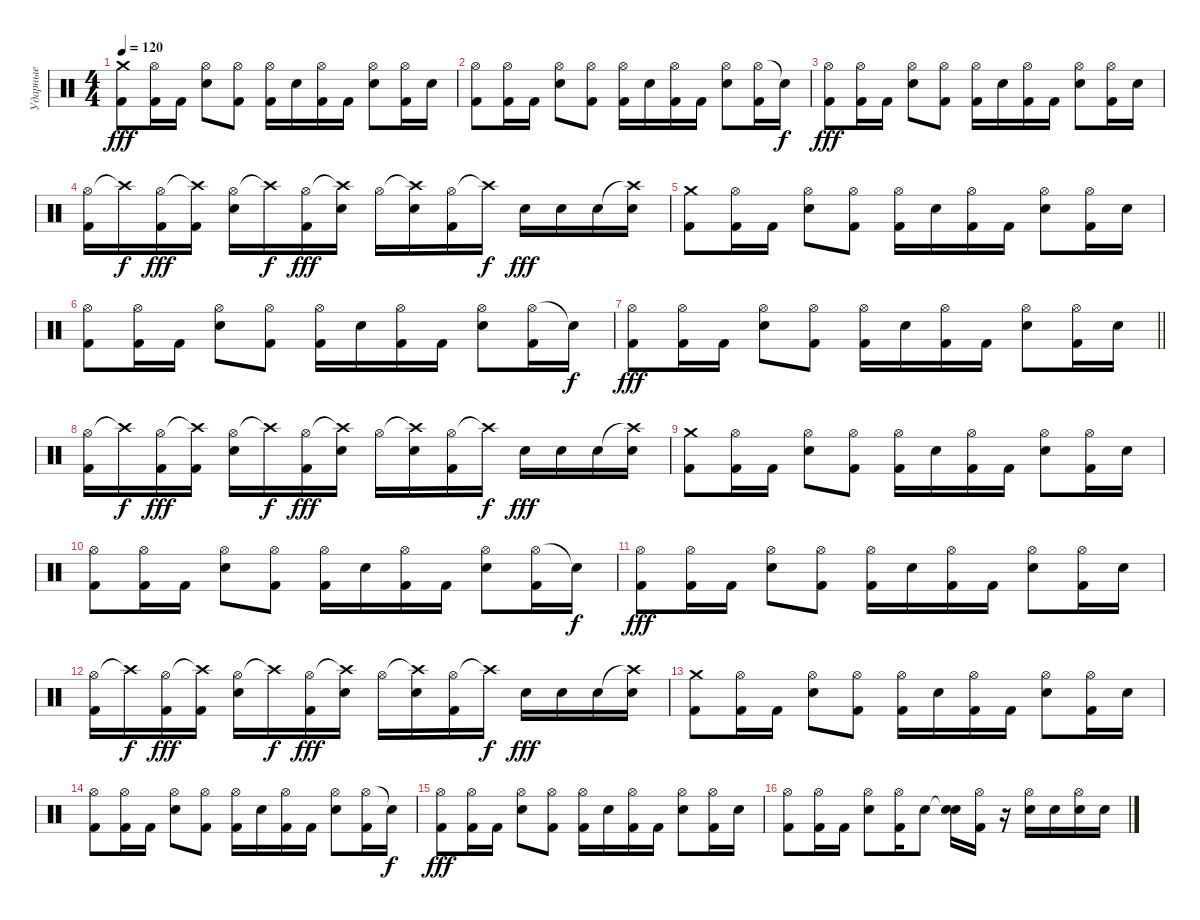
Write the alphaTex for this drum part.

\track ("Ударные" "Ударные") {instrument percussion}
\staff {score}
\articulation defaults
\ts (4 4)
\tempo 120
\clef neutral
\ks c
("Crash medium (hit)" "Kick (hit) 2").8{dy fff} ("Hi-Hat (open)" "Kick (hit) 2").16 "Kick (hit) 2".16 ("Hi-Hat (open)" "Electric Snare (hit)").8 ("Hi-Hat (open)" "Kick (hit) 2").8 ("Hi-Hat (open)" "Kick (hit) 2").16 "Electric Snare (hit)".16 ("Hi-Hat (open)" "Kick (hit) 2").16 "Kick (hit) 2".16 ("Hi-Hat (open)" "Electric Snare (hit)").8 ("Hi-Hat (open)" "Kick (hit) 2").16 "Electric Snare (hit)".16 |
("Hi-Hat (open)" "Kick (hit) 2").8 ("Hi-Hat (open)" "Kick (hit) 2").16 "Kick (hit) 2".16 ("Hi-Hat (open)" "Electric Snare (hit)").8 ("Hi-Hat (open)" "Kick (hit) 2").8 ("Hi-Hat (open)" "Kick (hit) 2").16 "Electric Snare (hit)".16 ("Hi-Hat (open)" "Kick (hit) 2").16 "Kick (hit) 2".16 ("Hi-Hat (open)" "Electric Snare (hit)").8 ("Hi-Hat (open)" "Kick (hit) 2").16 "Snare (hit)"{t}.16{dy f} |
("Hi-Hat (open)" "Kick (hit) 2").8{dy fff} ("Hi-Hat (open)" "Kick (hit) 2").16 "Kick (hit) 2".16 ("Hi-Hat (open)" "Electric Snare (hit)").8 ("Hi-Hat (open)" "Kick (hit) 2").8 ("Hi-Hat (open)" "Kick (hit) 2").16 "Electric Snare (hit)".16 ("Hi-Hat (open)" "Kick (hit) 2").16 "Kick (hit) 2".16 ("Hi-Hat (open)" "Electric Snare (hit)").8 ("Hi-Hat (open)" "Kick (hit) 2").16 "Electric Snare (hit)".16 |
("Hi-Hat (open)" "Kick (hit) 2").16 "Crash high (hit)"{t}.16{dy f} ("Hi-Hat (open)" "Kick (hit) 2").16{dy fff} ("Crash high (hit)"{t} "Kick (hit) 2").16 ("Hi-Hat (open)" "Electric Snare (hit)").16 "Crash high (hit)"{t}.16{dy f} ("Hi-Hat (open)" "Kick (hit) 2").16{dy fff} ("Crash high (hit)"{t} "Electric Snare (hit)").16 "Hi-Hat (open)".16 ("Crash high (hit)"{t} "Electric Snare (hit)").16 ("Hi-Hat (open)" "Kick (hit) 2").16 "Crash high (hit)"{t}.16{dy f} "Electric Snare (hit)".16{dy fff} "Electric Snare (hit)".16 "Electric Snare (hit)".16 ("Crash high (hit)"{t} "Electric Snare (hit)").16 |
("Crash medium (hit)" "Kick (hit) 2").8 ("Hi-Hat (open)" "Kick (hit) 2").16 "Kick (hit) 2".16 ("Hi-Hat (open)" "Electric Snare (hit)").8 ("Hi-Hat (open)" "Kick (hit) 2").8 ("Hi-Hat (open)" "Kick (hit) 2").16 "Electric Snare (hit)".16 ("Hi-Hat (open)" "Kick (hit) 2").16 "Kick (hit) 2".16 ("Hi-Hat (open)" "Electric Snare (hit)").8 ("Hi-Hat (open)" "Kick (hit) 2").16 "Electric Snare (hit)".16 |
("Hi-Hat (open)" "Kick (hit) 2").8 ("Hi-Hat (open)" "Kick (hit) 2").16 "Kick (hit) 2".16 ("Hi-Hat (open)" "Electric Snare (hit)").8 ("Hi-Hat (open)" "Kick (hit) 2").8 ("Hi-Hat (open)" "Kick (hit) 2").16 "Electric Snare (hit)".16 ("Hi-Hat (open)" "Kick (hit) 2").16 "Kick (hit) 2".16 ("Hi-Hat (open)" "Electric Snare (hit)").8 ("Hi-Hat (open)" "Kick (hit) 2").16 "Snare (hit)"{t}.16{dy f} |
\barLineRight lightlight
("Hi-Hat (open)" "Kick (hit) 2").8{dy fff} ("Hi-Hat (open)" "Kick (hit) 2").16 "Kick (hit) 2".16 ("Hi-Hat (open)" "Electric Snare (hit)").8 ("Hi-Hat (open)" "Kick (hit) 2").8 ("Hi-Hat (open)" "Kick (hit) 2").16 "Electric Snare (hit)".16 ("Hi-Hat (open)" "Kick (hit) 2").16 "Kick (hit) 2".16 ("Hi-Hat (open)" "Electric Snare (hit)").8 ("Hi-Hat (open)" "Kick (hit) 2").16 "Electric Snare (hit)".16 |
("Hi-Hat (open)" "Kick (hit) 2").16 "Crash high (hit)"{t}.16{dy f} ("Hi-Hat (open)" "Kick (hit) 2").16{dy fff} ("Crash high (hit)"{t} "Kick (hit) 2").16 ("Hi-Hat (open)" "Electric Snare (hit)").16 "Crash high (hit)"{t}.16{dy f} ("Hi-Hat (open)" "Kick (hit) 2").16{dy fff} ("Crash high (hit)"{t} "Electric Snare (hit)").16 "Hi-Hat (open)".16 ("Crash high (hit)"{t} "Electric Snare (hit)").16 ("Hi-Hat (open)" "Kick (hit) 2").16 "Crash high (hit)"{t}.16{dy f} "Electric Snare (hit)".16{dy fff} "Electric Snare (hit)".16 "Electric Snare (hit)".16 ("Crash high (hit)"{t} "Electric Snare (hit)").16 |
("Crash medium (hit)" "Kick (hit) 2").8 ("Hi-Hat (open)" "Kick (hit) 2").16 "Kick (hit) 2".16 ("Hi-Hat (open)" "Electric Snare (hit)").8 ("Hi-Hat (open)" "Kick (hit) 2").8 ("Hi-Hat (open)" "Kick (hit) 2").16 "Electric Snare (hit)".16 ("Hi-Hat (open)" "Kick (hit) 2").16 "Kick (hit) 2".16 ("Hi-Hat (open)" "Electric Snare (hit)").8 ("Hi-Hat (open)" "Kick (hit) 2").16 "Electric Snare (hit)".16 |
("Hi-Hat (open)" "Kick (hit) 2").8 ("Hi-Hat (open)" "Kick (hit) 2").16 "Kick (hit) 2".16 ("Hi-Hat (open)" "Electric Snare (hit)").8 ("Hi-Hat (open)" "Kick (hit) 2").8 ("Hi-Hat (open)" "Kick (hit) 2").16 "Electric Snare (hit)".16 ("Hi-Hat (open)" "Kick (hit) 2").16 "Kick (hit) 2".16 ("Hi-Hat (open)" "Electric Snare (hit)").8 ("Hi-Hat (open)" "Kick (hit) 2").16 "Snare (hit)"{t}.16{dy f} |
("Hi-Hat (open)" "Kick (hit) 2").8{dy fff} ("Hi-Hat (open)" "Kick (hit) 2").16 "Kick (hit) 2".16 ("Hi-Hat (open)" "Electric Snare (hit)").8 ("Hi-Hat (open)" "Kick (hit) 2").8 ("Hi-Hat (open)" "Kick (hit) 2").16 "Electric Snare (hit)".16 ("Hi-Hat (open)" "Kick (hit) 2").16 "Kick (hit) 2".16 ("Hi-Hat (open)" "Electric Snare (hit)").8 ("Hi-Hat (open)" "Kick (hit) 2").16 "Electric Snare (hit)".16 |
("Hi-Hat (open)" "Kick (hit) 2").16 "Crash high (hit)"{t}.16{dy f} ("Hi-Hat (open)" "Kick (hit) 2").16{dy fff} ("Crash high (hit)"{t} "Kick (hit) 2").16 ("Hi-Hat (open)" "Electric Snare (hit)").16 "Crash high (hit)"{t}.16{dy f} ("Hi-Hat (open)" "Kick (hit) 2").16{dy fff} ("Crash high (hit)"{t} "Electric Snare (hit)").16 "Hi-Hat (open)".16 ("Crash high (hit)"{t} "Electric Snare (hit)").16 ("Hi-Hat (open)" "Kick (hit) 2").16 "Crash high (hit)"{t}.16{dy f} "Electric Snare (hit)".16{dy fff} "Electric Snare (hit)".16 "Electric Snare (hit)".16 ("Crash high (hit)"{t} "Electric Snare (hit)").16 |
("Crash medium (hit)" "Kick (hit) 2").8 ("Hi-Hat (open)" "Kick (hit) 2").16 "Kick (hit) 2".16 ("Hi-Hat (open)" "Electric Snare (hit)").8 ("Hi-Hat (open)" "Kick (hit) 2").8 ("Hi-Hat (open)" "Kick (hit) 2").16 "Electric Snare (hit)".16 ("Hi-Hat (open)" "Kick (hit) 2").16 "Kick (hit) 2".16 ("Hi-Hat (open)" "Electric Snare (hit)").8 ("Hi-Hat (open)" "Kick (hit) 2").16 "Electric Snare (hit)".16 |
("Hi-Hat (open)" "Kick (hit) 2").8 ("Hi-Hat (open)" "Kick (hit) 2").16 "Kick (hit) 2".16 ("Hi-Hat (open)" "Electric Snare (hit)").8 ("Hi-Hat (open)" "Kick (hit) 2").8 ("Hi-Hat (open)" "Kick (hit) 2").16 "Electric Snare (hit)".16 ("Hi-Hat (open)" "Kick (hit) 2").16 "Kick (hit) 2".16 ("Hi-Hat (open)" "Electric Snare (hit)").8 ("Hi-Hat (open)" "Kick (hit) 2").16 "Snare (hit)"{t}.16{dy f} |
("Hi-Hat (open)" "Kick (hit) 2").8{dy fff} ("Hi-Hat (open)" "Kick (hit) 2").16 "Kick (hit) 2".16 ("Hi-Hat (open)" "Electric Snare (hit)").8 ("Hi-Hat (open)" "Kick (hit) 2").8 ("Hi-Hat (open)" "Kick (hit) 2").16 "Electric Snare (hit)".16 ("Hi-Hat (open)" "Kick (hit) 2").16 "Kick (hit) 2".16 ("Hi-Hat (open)" "Electric Snare (hit)").8 ("Hi-Hat (open)" "Kick (hit) 2").16 "Electric Snare (hit)".16 |
("Hi-Hat (open)" "Kick (hit) 2").8 ("Hi-Hat (open)" "Kick (hit) 2").16 "Kick (hit) 2".16 ("Hi-Hat (open)" "Electric Snare (hit)").8 ("Hi-Hat (open)" "Kick (hit) 2").16 "Electric Snare (hit)".8 ("Snare (hit)"{t} "Electric Snare (hit)").16 ("Hi-Hat (open)" "Kick (hit) 2").16 r.16 ("Hi-Hat (open)" "Electric Snare (hit)").16 "Electric Snare (hit)".16 ("Hi-Hat (open)" "Electric Snare (hit)").16 "Electric Snare (hit)".16
